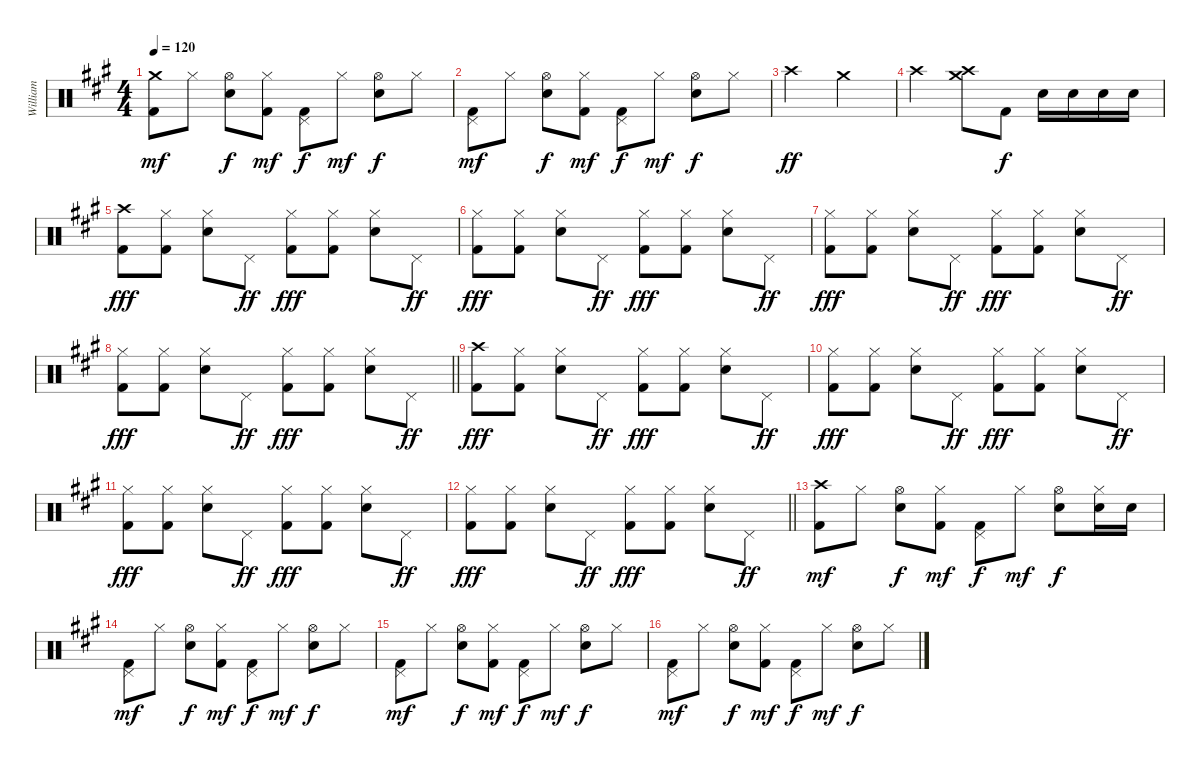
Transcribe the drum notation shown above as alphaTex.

\track ("William" "William") {instrument percussion}
\staff {score}
\articulation defaults
\ts (4 4)
\tempo 120
\clef neutral
\ks a
("Crash medium (hit)" "Kick (hit) 2").8{dy mf} "Hi-Hat (closed)".8 ("Hi-Hat (open)" "Snare (hit) 2").8{dy f} ("Hi-Hat (closed)" "Kick (hit) 2").8{dy mf} ("Pedal Hi-Hat (hit)" "Kick (hit) 2").8{dy f} "Hi-Hat (closed)".8{dy mf} ("Hi-Hat (open)" "Snare (hit) 2").8{dy f} "Hi-Hat (closed)".8 |
("Pedal Hi-Hat (hit)" "Kick (hit) 2").8{dy mf} "Hi-Hat (closed)".8 ("Hi-Hat (open)" "Snare (hit) 2").8{dy f} ("Hi-Hat (closed)" "Kick (hit) 2").8{dy mf} ("Pedal Hi-Hat (hit)" "Kick (hit) 2").8{dy f} "Hi-Hat (closed)".8{dy mf} ("Hi-Hat (open)" "Snare (hit) 2").8{dy f} "Hi-Hat (closed)".8 |
"Crash high (hit)".2{dy ff} "Crash medium (hit)".2 |
"Crash high (hit)".2 ("Crash high (hit)" "Crash medium (hit)").8 "Kick (hit) 2".8{dy f} "Snare (hit) 2".16 "Snare (hit) 2".16 "Snare (hit) 2".16 "Snare (hit) 2".16 |
("Crash high (hit)" "Kick (hit) 2").8{dy fff} ("Hi-Hat (closed)" "Kick (hit) 2").8 ("Hi-Hat (closed)" "Snare (hit) 2").8 "Pedal Hi-Hat (hit)".8{dy ff} ("Hi-Hat (closed)" "Kick (hit) 2").8{dy fff} ("Hi-Hat (closed)" "Kick (hit) 2").8 ("Hi-Hat (closed)" "Snare (hit) 2").8 "Pedal Hi-Hat (hit)".8{dy ff} |
("Hi-Hat (closed)" "Kick (hit) 2").8{dy fff} ("Hi-Hat (closed)" "Kick (hit) 2").8 ("Hi-Hat (closed)" "Snare (hit) 2").8 "Pedal Hi-Hat (hit)".8{dy ff} ("Hi-Hat (closed)" "Kick (hit) 2").8{dy fff} ("Hi-Hat (closed)" "Kick (hit) 2").8 ("Hi-Hat (closed)" "Snare (hit) 2").8 "Pedal Hi-Hat (hit)".8{dy ff} |
("Hi-Hat (closed)" "Kick (hit) 2").8{dy fff} ("Hi-Hat (closed)" "Kick (hit) 2").8 ("Hi-Hat (closed)" "Snare (hit) 2").8 "Pedal Hi-Hat (hit)".8{dy ff} ("Hi-Hat (closed)" "Kick (hit) 2").8{dy fff} ("Hi-Hat (closed)" "Kick (hit) 2").8 ("Hi-Hat (closed)" "Snare (hit) 2").8 "Pedal Hi-Hat (hit)".8{dy ff} |
\barLineRight lightlight
("Hi-Hat (closed)" "Kick (hit) 2").8{dy fff} ("Hi-Hat (closed)" "Kick (hit) 2").8 ("Hi-Hat (closed)" "Snare (hit) 2").8 "Pedal Hi-Hat (hit)".8{dy ff} ("Hi-Hat (closed)" "Kick (hit) 2").8{dy fff} ("Hi-Hat (closed)" "Kick (hit) 2").8 ("Hi-Hat (closed)" "Snare (hit) 2").8 "Pedal Hi-Hat (hit)".8{dy ff} |
("Crash high (hit)" "Kick (hit) 2").8{dy fff} ("Hi-Hat (closed)" "Kick (hit) 2").8 ("Hi-Hat (closed)" "Snare (hit) 2").8 "Pedal Hi-Hat (hit)".8{dy ff} ("Hi-Hat (closed)" "Kick (hit) 2").8{dy fff} ("Hi-Hat (closed)" "Kick (hit) 2").8 ("Hi-Hat (closed)" "Snare (hit) 2").8 "Pedal Hi-Hat (hit)".8{dy ff} |
("Hi-Hat (closed)" "Kick (hit) 2").8{dy fff} ("Hi-Hat (closed)" "Kick (hit) 2").8 ("Hi-Hat (closed)" "Snare (hit) 2").8 "Pedal Hi-Hat (hit)".8{dy ff} ("Hi-Hat (closed)" "Kick (hit) 2").8{dy fff} ("Hi-Hat (closed)" "Kick (hit) 2").8 ("Hi-Hat (closed)" "Snare (hit) 2").8 "Pedal Hi-Hat (hit)".8{dy ff} |
("Hi-Hat (closed)" "Kick (hit) 2").8{dy fff} ("Hi-Hat (closed)" "Kick (hit) 2").8 ("Hi-Hat (closed)" "Snare (hit) 2").8 "Pedal Hi-Hat (hit)".8{dy ff} ("Hi-Hat (closed)" "Kick (hit) 2").8{dy fff} ("Hi-Hat (closed)" "Kick (hit) 2").8 ("Hi-Hat (closed)" "Snare (hit) 2").8 "Pedal Hi-Hat (hit)".8{dy ff} |
\barLineRight lightlight
("Hi-Hat (closed)" "Kick (hit) 2").8{dy fff} ("Hi-Hat (closed)" "Kick (hit) 2").8 ("Hi-Hat (closed)" "Snare (hit) 2").8 "Pedal Hi-Hat (hit)".8{dy ff} ("Hi-Hat (closed)" "Kick (hit) 2").8{dy fff} ("Hi-Hat (closed)" "Kick (hit) 2").8 ("Hi-Hat (closed)" "Snare (hit) 2").8 "Pedal Hi-Hat (hit)".8{dy ff} |
("Crash high (hit)" "Kick (hit) 2").8{dy mf} "Hi-Hat (closed)".8 ("Hi-Hat (open)" "Snare (hit) 2").8{dy f} ("Hi-Hat (closed)" "Kick (hit) 2").8{dy mf} ("Pedal Hi-Hat (hit)" "Kick (hit) 2").8{dy f} "Hi-Hat (closed)".8{dy mf} ("Hi-Hat (open)" "Snare (hit) 2").8{dy f} ("Hi-Hat (closed)" "Snare (hit) 2").16 "Snare (hit) 2".16 |
("Pedal Hi-Hat (hit)" "Kick (hit) 2").8{dy mf} "Hi-Hat (closed)".8 ("Hi-Hat (open)" "Snare (hit) 2").8{dy f} ("Hi-Hat (closed)" "Kick (hit) 2").8{dy mf} ("Pedal Hi-Hat (hit)" "Kick (hit) 2").8{dy f} "Hi-Hat (closed)".8{dy mf} ("Hi-Hat (open)" "Snare (hit) 2").8{dy f} "Hi-Hat (closed)".8 |
("Pedal Hi-Hat (hit)" "Kick (hit) 2").8{dy mf} "Hi-Hat (closed)".8 ("Hi-Hat (open)" "Snare (hit) 2").8{dy f} ("Hi-Hat (closed)" "Kick (hit) 2").8{dy mf} ("Pedal Hi-Hat (hit)" "Kick (hit) 2").8{dy f} "Hi-Hat (closed)".8{dy mf} ("Hi-Hat (open)" "Snare (hit) 2").8{dy f} "Hi-Hat (closed)".8 |
("Pedal Hi-Hat (hit)" "Kick (hit) 2").8{dy mf} "Hi-Hat (closed)".8 ("Hi-Hat (open)" "Snare (hit) 2").8{dy f} ("Hi-Hat (closed)" "Kick (hit) 2").8{dy mf} ("Pedal Hi-Hat (hit)" "Kick (hit) 2").8{dy f} "Hi-Hat (closed)".8{dy mf} ("Hi-Hat (open)" "Snare (hit) 2").8{dy f} "Hi-Hat (closed)".8
